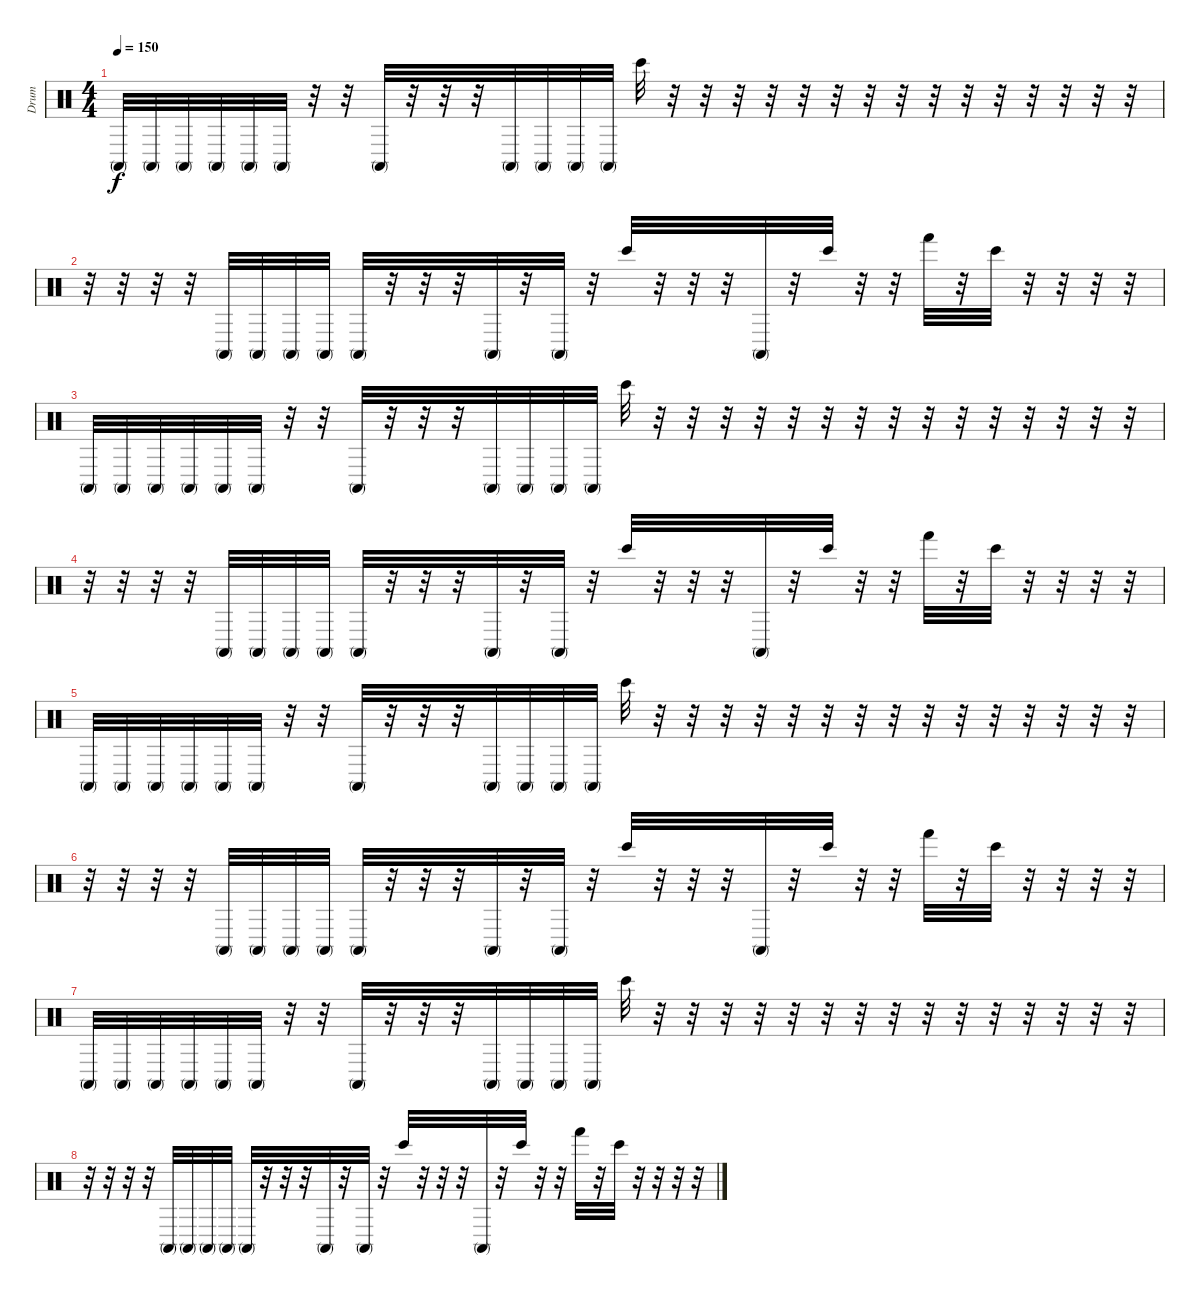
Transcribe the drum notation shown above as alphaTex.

\track ("Drum" "Drum") {instrument percussion}
\staff {score}
\articulation defaults
\ts (4 4)
\tempo 150
\clef neutral
\ks c "Conga high (mute)".32{dy f} "Conga high (mute)".32 "Conga high (mute)".32 "Conga high (mute)".32 "Conga high (mute)".32 "Conga high (mute)".32
r.32 r.32 "Conga high (mute)".32 r.32 r.32 r.32 "Conga high (mute)".32 "Conga high (mute)".32 "Conga high (mute)".32 "Conga high (mute)".32 "Bongo High (hit)".32 r.32 r.32 r.32 r.32 r.32 r.32 r.32 r.32 r.32 r.32 r.32 r.32 r.32 r.32 r.32 |
r.32 r.32 r.32 r.32 "Conga high (mute)".32 "Conga high (mute)".32 "Conga high (mute)".32 "Conga high (mute)".32 "Conga high (mute)".32 r.32 r.32 r.32 "Conga high (mute)".32 r.32 "Conga high (mute)".32 r.32 "Bongo High (hit)".32 r.32 r.32 r.32 "Conga high (mute)".32 r.32 "Bongo High (hit)".32 r.32 r.32 "Hand (hit)".32 r.32 "Bongo High (hit)".32 r.32 r.32 r.32 r.32 |
"Conga high (mute)".32 "Conga high (mute)".32 "Conga high (mute)".32 "Conga high (mute)".32 "Conga high (mute)".32 "Conga high (mute)".32 r.32 r.32 "Conga high (mute)".32 r.32 r.32 r.32 "Conga high (mute)".32 "Conga high (mute)".32 "Conga high (mute)".32 "Conga high (mute)".32 "Bongo High (hit)".32 r.32 r.32 r.32 r.32 r.32 r.32 r.32 r.32 r.32 r.32 r.32 r.32 r.32 r.32 r.32 |
r.32 r.32 r.32 r.32 "Conga high (mute)".32 "Conga high (mute)".32 "Conga high (mute)".32 "Conga high (mute)".32 "Conga high (mute)".32 r.32 r.32 r.32 "Conga high (mute)".32 r.32 "Conga high (mute)".32 r.32 "Bongo High (hit)".32 r.32 r.32 r.32 "Conga high (mute)".32 r.32 "Bongo High (hit)".32 r.32 r.32 "Hand (hit)".32 r.32 "Bongo High (hit)".32 r.32 r.32 r.32 r.32 |
"Conga high (mute)".32 "Conga high (mute)".32 "Conga high (mute)".32 "Conga high (mute)".32 "Conga high (mute)".32 "Conga high (mute)".32 r.32 r.32 "Conga high (mute)".32 r.32 r.32 r.32 "Conga high (mute)".32 "Conga high (mute)".32 "Conga high (mute)".32 "Conga high (mute)".32 "Bongo High (hit)".32 r.32 r.32 r.32 r.32 r.32 r.32 r.32 r.32 r.32 r.32 r.32 r.32 r.32 r.32 r.32 |
r.32 r.32 r.32 r.32 "Conga high (mute)".32 "Conga high (mute)".32 "Conga high (mute)".32 "Conga high (mute)".32 "Conga high (mute)".32 r.32 r.32 r.32 "Conga high (mute)".32 r.32 "Conga high (mute)".32 r.32 "Bongo High (hit)".32 r.32 r.32 r.32 "Conga high (mute)".32 r.32 "Bongo High (hit)".32 r.32 r.32 "Hand (hit)".32 r.32 "Bongo High (hit)".32 r.32 r.32 r.32 r.32 |
"Conga high (mute)".32 "Conga high (mute)".32 "Conga high (mute)".32 "Conga high (mute)".32 "Conga high (mute)".32 "Conga high (mute)".32 r.32 r.32 "Conga high (mute)".32 r.32 r.32 r.32 "Conga high (mute)".32 "Conga high (mute)".32 "Conga high (mute)".32 "Conga high (mute)".32 "Bongo High (hit)".32 r.32 r.32 r.32 r.32 r.32 r.32 r.32 r.32 r.32 r.32 r.32 r.32 r.32 r.32 r.32 |
r.32 r.32 r.32 r.32 "Conga high (mute)".32 "Conga high (mute)".32 "Conga high (mute)".32 "Conga high (mute)".32 "Conga high (mute)".32 r.32 r.32 r.32 "Conga high (mute)".32 r.32 "Conga high (mute)".32 r.32 "Bongo High (hit)".32 r.32 r.32 r.32 "Conga high (mute)".32 r.32 "Bongo High (hit)".32 r.32 r.32 "Hand (hit)".32 r.32 "Bongo High (hit)".32 r.32 r.32 r.32 r.32
